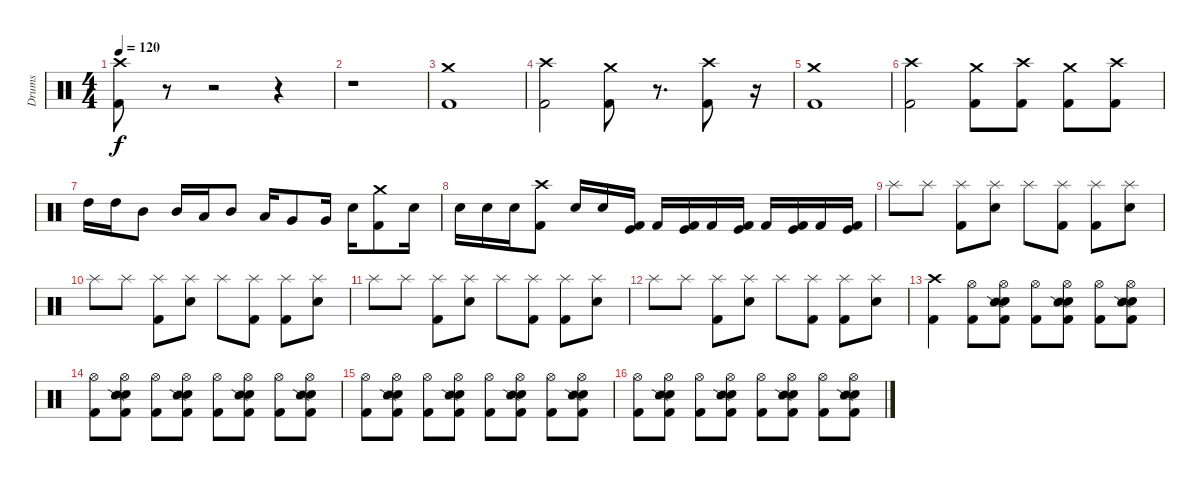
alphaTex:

\track ("Drums" "Drums") {instrument percussion}
\staff {score}
\articulation defaults
\ts (4 4)
\tempo 120
\clef neutral
\ks c
("Crash high (hit)" "Kick (hit) 2").8{dy f} r.8 r.2 r.4 |
r.1 |
("Crash medium (hit)" "Kick (hit) 2").1 |
("Crash high (hit)" "Kick (hit) 2").2 ("Crash medium (hit)" "Kick (hit) 2").8 r.8{d} ("Crash high (hit)" "Kick (hit) 2").8 r.16 |
("Crash medium (hit)" "Kick (hit) 2").1 |
("Crash high (hit)" "Kick (hit) 2").2 ("Crash medium (hit)" "Kick (hit) 2").8 ("Crash high (hit)" "Kick (hit) 2").8 ("Crash medium (hit)" "Kick (hit) 2").8 ("Crash high (hit)" "Kick (hit) 2").8 |
"High Tom (hit)".16 "High Tom (hit)".16 "Mid Tom (hit)".8 "Mid Tom (hit)".16 "Low Tom (hit)".16 "Mid Tom (hit)".8 "Low Tom (hit)".16 "Very Low Tom (hit)".8 "Very Low Tom (hit)".16 "Electric Snare (hit)".16 ("Crash medium (hit)" "Kick (hit) 2").8 "Electric Snare (hit)".16 |
"Electric Snare (hit)".16 "Electric Snare (hit)".16 "Electric Snare (hit)".16 ("Crash high (hit)" "Kick (hit) 2").8 "Electric Snare (hit)".16 "Electric Snare (hit)".16 ("Kick (hit)" "Kick (hit) 2").16 "Kick (hit) 2".16 ("Kick (hit)" "Kick (hit) 2").16 "Kick (hit) 2".16 ("Kick (hit)" "Kick (hit) 2").16 "Kick (hit) 2".16 ("Kick (hit)" "Kick (hit) 2").16 "Kick (hit) 2".16 ("Kick (hit)" "Kick (hit) 2").16 |
"Splash (hit)".8 "Splash (hit)".8 ("Splash (hit)" "Kick (hit) 2").8 ("Splash (hit)" "Electric Snare (hit)").8 "Splash (hit)".8 ("Splash (hit)" "Kick (hit) 2").8 ("Splash (hit)" "Kick (hit) 2").8 ("Splash (hit)" "Electric Snare (hit)").8 |
"Splash (hit)".8 "Splash (hit)".8 ("Splash (hit)" "Kick (hit) 2").8 ("Splash (hit)" "Electric Snare (hit)").8 "Splash (hit)".8 ("Splash (hit)" "Kick (hit) 2").8 ("Splash (hit)" "Kick (hit) 2").8 ("Splash (hit)" "Electric Snare (hit)").8 |
"Splash (hit)".8 "Splash (hit)".8 ("Splash (hit)" "Kick (hit) 2").8 ("Splash (hit)" "Electric Snare (hit)").8 "Splash (hit)".8 ("Splash (hit)" "Kick (hit) 2").8 ("Splash (hit)" "Kick (hit) 2").8 ("Splash (hit)" "Electric Snare (hit)").8 |
"Splash (hit)".8 "Splash (hit)".8 ("Splash (hit)" "Kick (hit) 2").8 ("Splash (hit)" "Electric Snare (hit)").8 "Splash (hit)".8 ("Splash (hit)" "Kick (hit) 2").8 ("Splash (hit)" "Kick (hit) 2").8 ("Splash (hit)" "Electric Snare (hit)").8 |
("Crash high (hit)" "Kick (hit) 2").4 ("Hi-Hat (open)" "Kick (hit) 2").8 ("Hi-Hat (open)" "Electric Snare (hit)" "Snare (side stick) 2" "Kick (hit) 2").8 ("Hi-Hat (open)" "Kick (hit) 2").8 ("Hi-Hat (open)" "Electric Snare (hit)" "Snare (side stick) 2" "Kick (hit) 2").8 ("Hi-Hat (open)" "Kick (hit) 2").8 ("Hi-Hat (open)" "Electric Snare (hit)" "Snare (side stick) 2" "Kick (hit) 2").8 |
("Hi-Hat (open)" "Kick (hit) 2").8 ("Hi-Hat (open)" "Electric Snare (hit)" "Snare (side stick) 2" "Kick (hit) 2").8 ("Hi-Hat (open)" "Kick (hit) 2").8 ("Hi-Hat (open)" "Electric Snare (hit)" "Snare (side stick) 2" "Kick (hit) 2").8 ("Hi-Hat (open)" "Kick (hit) 2").8 ("Hi-Hat (open)" "Electric Snare (hit)" "Snare (side stick) 2" "Kick (hit) 2").8 ("Hi-Hat (open)" "Kick (hit) 2").8 ("Hi-Hat (open)" "Electric Snare (hit)" "Snare (side stick) 2" "Kick (hit) 2").8 |
("Hi-Hat (open)" "Kick (hit) 2").8 ("Hi-Hat (open)" "Electric Snare (hit)" "Snare (side stick) 2" "Kick (hit) 2").8 ("Hi-Hat (open)" "Kick (hit) 2").8 ("Hi-Hat (open)" "Electric Snare (hit)" "Snare (side stick) 2" "Kick (hit) 2").8 ("Hi-Hat (open)" "Kick (hit) 2").8 ("Hi-Hat (open)" "Electric Snare (hit)" "Snare (side stick) 2" "Kick (hit) 2").8 ("Hi-Hat (open)" "Kick (hit) 2").8 ("Hi-Hat (open)" "Electric Snare (hit)" "Snare (side stick) 2" "Kick (hit) 2").8 |
("Hi-Hat (open)" "Kick (hit) 2").8 ("Hi-Hat (open)" "Electric Snare (hit)" "Snare (side stick) 2" "Kick (hit) 2").8 ("Hi-Hat (open)" "Kick (hit) 2").8 ("Hi-Hat (open)" "Electric Snare (hit)" "Snare (side stick) 2" "Kick (hit) 2").8 ("Hi-Hat (open)" "Kick (hit) 2").8 ("Hi-Hat (open)" "Electric Snare (hit)" "Snare (side stick) 2" "Kick (hit) 2").8 ("Hi-Hat (open)" "Kick (hit) 2").8 ("Hi-Hat (open)" "Electric Snare (hit)" "Snare (side stick) 2" "Kick (hit) 2").8
